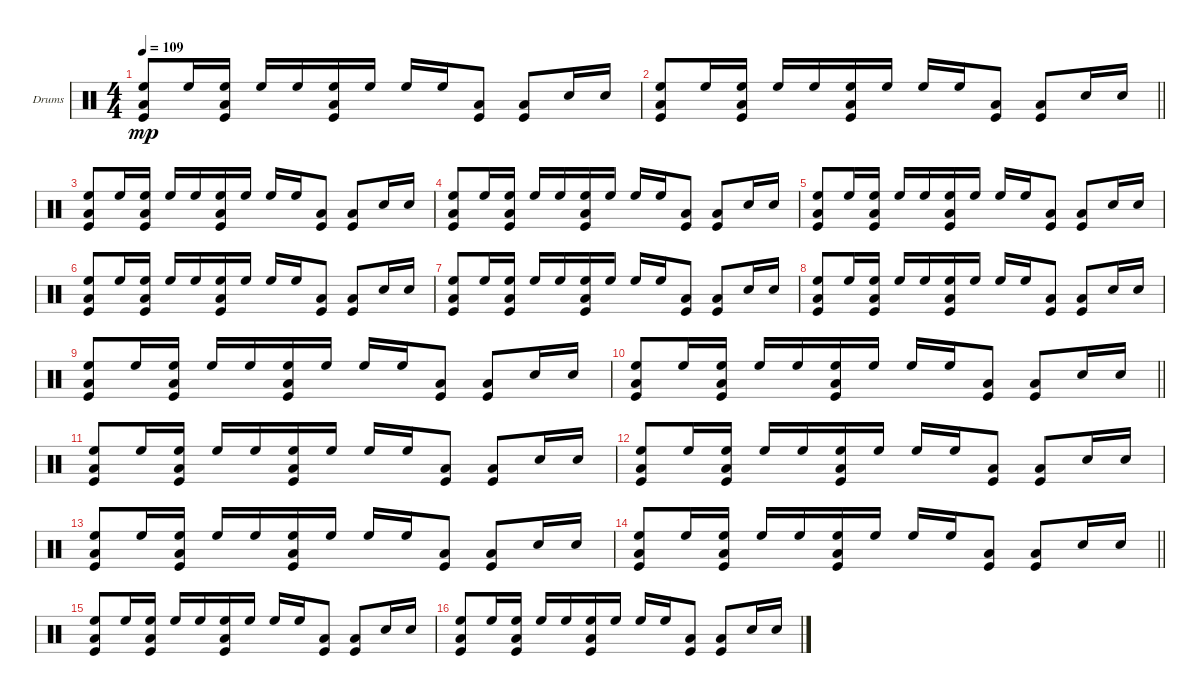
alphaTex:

\defaultSystemsLayout 4
\bracketExtendMode groupsimilarinstruments
\firstSystemTrackNameOrientation horizontal
\otherSystemsTrackNameOrientation horizontal
\track ("Drumkit" "Drums") {instrument percussion}
\staff {score}
\articulation defaults
\ts (4 4)
\tempo 109
\clef neutral
\ks c
("Kick (hit)" "Low Tom (hit)" "High Floor Tom (hit)").8{dy mp} "High Floor Tom (hit)".16 ("Kick (hit)" "Low Tom (hit)" "High Floor Tom (hit)").16 "High Floor Tom (hit)".16 "High Floor Tom (hit)".16 ("Kick (hit)" "Low Tom (hit)" "High Floor Tom (hit)").16 "High Floor Tom (hit)".16 "High Floor Tom (hit)".16 "High Floor Tom (hit)".16 ("Kick (hit)" "Low Tom (hit)").8 ("Kick (hit)" "Low Tom (hit)").8 "Snare (hit) 2".16 "Snare (hit) 2".16 |
\barLineRight lightlight
("Kick (hit)" "Low Tom (hit)" "High Floor Tom (hit)").8 "High Floor Tom (hit)".16 ("Kick (hit)" "Low Tom (hit)" "High Floor Tom (hit)").16 "High Floor Tom (hit)".16 "High Floor Tom (hit)".16 ("Kick (hit)" "Low Tom (hit)" "High Floor Tom (hit)").16 "High Floor Tom (hit)".16 "High Floor Tom (hit)".16 "High Floor Tom (hit)".16 ("Kick (hit)" "Low Tom (hit)").8 ("Kick (hit)" "Low Tom (hit)").8 "Snare (hit) 2".16 "Snare (hit) 2".16 |
\scale
0.5 ("Kick (hit)" "Low Tom (hit)" "High Floor Tom (hit)").8 "High Floor Tom (hit)".16 ("Kick (hit)" "Low Tom (hit)" "High Floor Tom (hit)").16 "High Floor Tom (hit)".16 "High Floor Tom (hit)".16 ("Kick (hit)" "Low Tom (hit)" "High Floor Tom (hit)").16 "High Floor Tom (hit)".16 "High Floor Tom (hit)".16 "High Floor Tom (hit)".16 ("Kick (hit)" "Low Tom (hit)").8 ("Kick (hit)" "Low Tom (hit)").8 "Snare (hit) 2".16 "Snare (hit) 2".16 |
\scale
0.5 ("Kick (hit)" "Low Tom (hit)" "High Floor Tom (hit)").8 "High Floor Tom (hit)".16 ("Kick (hit)" "Low Tom (hit)" "High Floor Tom (hit)").16 "High Floor Tom (hit)".16 "High Floor Tom (hit)".16 ("Kick (hit)" "Low Tom (hit)" "High Floor Tom (hit)").16 "High Floor Tom (hit)".16 "High Floor Tom (hit)".16 "High Floor Tom (hit)".16 ("Kick (hit)" "Low Tom (hit)").8 ("Kick (hit)" "Low Tom (hit)").8 "Snare (hit) 2".16 "Snare (hit) 2".16 |
\scale
0.5 ("Kick (hit)" "Low Tom (hit)" "High Floor Tom (hit)").8 "High Floor Tom (hit)".16 ("Kick (hit)" "Low Tom (hit)" "High Floor Tom (hit)").16 "High Floor Tom (hit)".16 "High Floor Tom (hit)".16 ("Kick (hit)" "Low Tom (hit)" "High Floor Tom (hit)").16 "High Floor Tom (hit)".16 "High Floor Tom (hit)".16 "High Floor Tom (hit)".16 ("Kick (hit)" "Low Tom (hit)").8 ("Kick (hit)" "Low Tom (hit)").8 "Snare (hit) 2".16 "Snare (hit) 2".16 |
\scale
0.5 ("Kick (hit)" "Low Tom (hit)" "High Floor Tom (hit)").8 "High Floor Tom (hit)".16 ("Kick (hit)" "Low Tom (hit)" "High Floor Tom (hit)").16 "High Floor Tom (hit)".16 "High Floor Tom (hit)".16 ("Kick (hit)" "Low Tom (hit)" "High Floor Tom (hit)").16 "High Floor Tom (hit)".16 "High Floor Tom (hit)".16 "High Floor Tom (hit)".16 ("Kick (hit)" "Low Tom (hit)").8 ("Kick (hit)" "Low Tom (hit)").8 "Snare (hit) 2".16 "Snare (hit) 2".16 |
\scale
0.5 ("Kick (hit)" "Low Tom (hit)" "High Floor Tom (hit)").8 "High Floor Tom (hit)".16 ("Kick (hit)" "Low Tom (hit)" "High Floor Tom (hit)").16 "High Floor Tom (hit)".16 "High Floor Tom (hit)".16 ("Kick (hit)" "Low Tom (hit)" "High Floor Tom (hit)").16 "High Floor Tom (hit)".16 "High Floor Tom (hit)".16 "High Floor Tom (hit)".16 ("Kick (hit)" "Low Tom (hit)").8 ("Kick (hit)" "Low Tom (hit)").8 "Snare (hit) 2".16 "Snare (hit) 2".16 |
\scale
0.5 ("Kick (hit)" "Low Tom (hit)" "High Floor Tom (hit)").8 "High Floor Tom (hit)".16 ("Kick (hit)" "Low Tom (hit)" "High Floor Tom (hit)").16 "High Floor Tom (hit)".16 "High Floor Tom (hit)".16 ("Kick (hit)" "Low Tom (hit)" "High Floor Tom (hit)").16 "High Floor Tom (hit)".16 "High Floor Tom (hit)".16 "High Floor Tom (hit)".16 ("Kick (hit)" "Low Tom (hit)").8 ("Kick (hit)" "Low Tom (hit)").8 "Snare (hit) 2".16 "Snare (hit) 2".16 |
\scale
0.5 ("Kick (hit)" "Low Tom (hit)" "High Floor Tom (hit)").8 "High Floor Tom (hit)".16 ("Kick (hit)" "Low Tom (hit)" "High Floor Tom (hit)").16 "High Floor Tom (hit)".16 "High Floor Tom (hit)".16 ("Kick (hit)" "Low Tom (hit)" "High Floor Tom (hit)").16 "High Floor Tom (hit)".16 "High Floor Tom (hit)".16 "High Floor Tom (hit)".16 ("Kick (hit)" "Low Tom (hit)").8 ("Kick (hit)" "Low Tom (hit)").8 "Snare (hit) 2".16 "Snare (hit) 2".16 |
\scale
0.5
\barLineRight lightlight
("Kick (hit)" "Low Tom (hit)" "High Floor Tom (hit)").8 "High Floor Tom (hit)".16 ("Kick (hit)" "Low Tom (hit)" "High Floor Tom (hit)").16 "High Floor Tom (hit)".16 "High Floor Tom (hit)".16 ("Kick (hit)" "Low Tom (hit)" "High Floor Tom (hit)").16 "High Floor Tom (hit)".16 "High Floor Tom (hit)".16 "High Floor Tom (hit)".16 ("Kick (hit)" "Low Tom (hit)").8 ("Kick (hit)" "Low Tom (hit)").8 "Snare (hit) 2".16 "Snare (hit) 2".16 |
\scale
0.5 ("Kick (hit)" "Low Tom (hit)" "High Floor Tom (hit)").8 "High Floor Tom (hit)".16 ("Kick (hit)" "Low Tom (hit)" "High Floor Tom (hit)").16 "High Floor Tom (hit)".16 "High Floor Tom (hit)".16 ("Kick (hit)" "Low Tom (hit)" "High Floor Tom (hit)").16 "High Floor Tom (hit)".16 "High Floor Tom (hit)".16 "High Floor Tom (hit)".16 ("Kick (hit)" "Low Tom (hit)").8 ("Kick (hit)" "Low Tom (hit)").8 "Snare (hit) 2".16 "Snare (hit) 2".16 |
\scale
0.5 ("Kick (hit)" "Low Tom (hit)" "High Floor Tom (hit)").8 "High Floor Tom (hit)".16 ("Kick (hit)" "Low Tom (hit)" "High Floor Tom (hit)").16 "High Floor Tom (hit)".16 "High Floor Tom (hit)".16 ("Kick (hit)" "Low Tom (hit)" "High Floor Tom (hit)").16 "High Floor Tom (hit)".16 "High Floor Tom (hit)".16 "High Floor Tom (hit)".16 ("Kick (hit)" "Low Tom (hit)").8 ("Kick (hit)" "Low Tom (hit)").8 "Snare (hit) 2".16 "Snare (hit) 2".16 |
\scale
0.5 ("Kick (hit)" "Low Tom (hit)" "High Floor Tom (hit)").8 "High Floor Tom (hit)".16 ("Kick (hit)" "Low Tom (hit)" "High Floor Tom (hit)").16 "High Floor Tom (hit)".16 "High Floor Tom (hit)".16 ("Kick (hit)" "Low Tom (hit)" "High Floor Tom (hit)").16 "High Floor Tom (hit)".16 "High Floor Tom (hit)".16 "High Floor Tom (hit)".16 ("Kick (hit)" "Low Tom (hit)").8 ("Kick (hit)" "Low Tom (hit)").8 "Snare (hit) 2".16 "Snare (hit) 2".16 |
\scale
0.5
\barLineRight lightlight
("Kick (hit)" "Low Tom (hit)" "High Floor Tom (hit)").8 "High Floor Tom (hit)".16 ("Kick (hit)" "Low Tom (hit)" "High Floor Tom (hit)").16 "High Floor Tom (hit)".16 "High Floor Tom (hit)".16 ("Kick (hit)" "Low Tom (hit)" "High Floor Tom (hit)").16 "High Floor Tom (hit)".16 "High Floor Tom (hit)".16 "High Floor Tom (hit)".16 ("Kick (hit)" "Low Tom (hit)").8 ("Kick (hit)" "Low Tom (hit)").8 "Snare (hit) 2".16 "Snare (hit) 2".16 |
\scale
0.5 ("Kick (hit)" "Low Tom (hit)" "High Floor Tom (hit)").8 "High Floor Tom (hit)".16 ("Kick (hit)" "Low Tom (hit)" "High Floor Tom (hit)").16 "High Floor Tom (hit)".16 "High Floor Tom (hit)".16 ("Kick (hit)" "Low Tom (hit)" "High Floor Tom (hit)").16 "High Floor Tom (hit)".16 "High Floor Tom (hit)".16 "High Floor Tom (hit)".16 ("Kick (hit)" "Low Tom (hit)").8 ("Kick (hit)" "Low Tom (hit)").8 "Snare (hit) 2".16 "Snare (hit) 2".16 |
\scale
0.5 ("Kick (hit)" "Low Tom (hit)" "High Floor Tom (hit)").8 "High Floor Tom (hit)".16 ("Kick (hit)" "Low Tom (hit)" "High Floor Tom (hit)").16 "High Floor Tom (hit)".16 "High Floor Tom (hit)".16 ("Kick (hit)" "Low Tom (hit)" "High Floor Tom (hit)").16 "High Floor Tom (hit)".16 "High Floor Tom (hit)".16 "High Floor Tom (hit)".16 ("Kick (hit)" "Low Tom (hit)").8 ("Kick (hit)" "Low Tom (hit)").8 "Snare (hit) 2".16 "Snare (hit) 2".16
